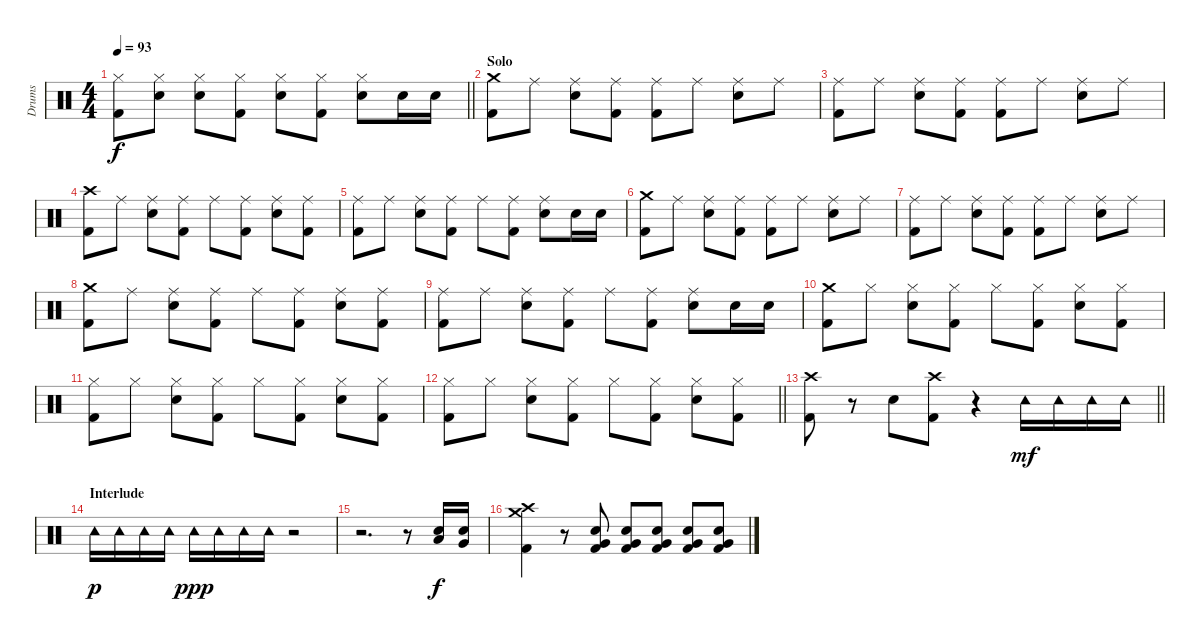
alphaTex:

\track ("Drums" "Drums") {instrument percussion}
\staff {score}
\articulation defaults
\ts (4 4)
\tempo 93
\clef neutral
\barLineRight lightlight
\ks c
("Hi-Hat (closed)" "Kick (hit) 2").8{dy f} ("Hi-Hat (closed)" "Electric Snare (hit)").8 ("Hi-Hat (closed)" "Electric Snare (hit)").8 ("Hi-Hat (closed)" "Kick (hit) 2").8 ("Hi-Hat (closed)" "Electric Snare (hit)").8 ("Hi-Hat (closed)" "Kick (hit) 2").8 ("Hi-Hat (closed)" "Electric Snare (hit)").8 "Electric Snare (hit)".16 "Electric Snare (hit)".16 |
\section ("" "Solo")
("Crash medium (hit)" "Kick (hit) 2").8 "Ride (middle)".8 ("Ride (middle)" "Electric Snare (hit)").8 ("Ride (middle)" "Kick (hit) 2").8 ("Ride (middle)" "Kick (hit) 2").8 "Ride (middle)".8 ("Ride (middle)" "Electric Snare (hit)").8 "Ride (middle)".8 |
("Ride (middle)" "Kick (hit) 2").8 "Ride (middle)".8 ("Ride (middle)" "Electric Snare (hit)").8 ("Ride (middle)" "Kick (hit) 2").8 ("Ride (middle)" "Kick (hit) 2").8 "Ride (middle)".8 ("Ride (middle)" "Electric Snare (hit)").8 "Ride (middle)".8 |
("Crash high (hit)" "Kick (hit) 2").8 "Ride (middle)".8 ("Ride (middle)" "Electric Snare (hit)").8 ("Ride (middle)" "Kick (hit) 2").8 "Ride (middle)".8 ("Ride (middle)" "Kick (hit) 2").8 ("Ride (middle)" "Electric Snare (hit)").8 ("Ride (middle)" "Kick (hit) 2").8 |
("Ride (middle)" "Kick (hit) 2").8 "Ride (middle)".8 ("Ride (middle)" "Electric Snare (hit)").8 ("Ride (middle)" "Kick (hit) 2").8 "Ride (middle)".8 ("Ride (middle)" "Kick (hit) 2").8 ("Ride (middle)" "Electric Snare (hit)").8 "Electric Snare (hit)".16 "Electric Snare (hit)".16 |
("Crash medium (hit)" "Kick (hit) 2").8 "Ride (middle)".8 ("Ride (middle)" "Electric Snare (hit)").8 ("Ride (middle)" "Kick (hit) 2").8 ("Ride (middle)" "Kick (hit) 2").8 "Ride (middle)".8 ("Ride (middle)" "Electric Snare (hit)").8 "Ride (middle)".8 |
("Ride (middle)" "Kick (hit) 2").8 "Ride (middle)".8 ("Ride (middle)" "Electric Snare (hit)").8 ("Ride (middle)" "Kick (hit) 2").8 ("Ride (middle)" "Kick (hit) 2").8 "Ride (middle)".8 ("Ride (middle)" "Electric Snare (hit)").8 "Ride (middle)".8 |
("Crash medium (hit)" "Kick (hit) 2").8 "Ride (middle)".8 ("Ride (middle)" "Electric Snare (hit)").8 ("Ride (middle)" "Kick (hit) 2").8 "Ride (middle)".8 ("Ride (middle)" "Kick (hit) 2").8 ("Ride (middle)" "Electric Snare (hit)").8 ("Ride (middle)" "Kick (hit) 2").8 |
("Ride (middle)" "Kick (hit) 2").8 "Ride (middle)".8 ("Ride (middle)" "Electric Snare (hit)").8 ("Ride (middle)" "Kick (hit) 2").8 "Ride (middle)".8 ("Ride (middle)" "Kick (hit) 2").8 ("Ride (middle)" "Electric Snare (hit)").8 "Electric Snare (hit)".16 "Electric Snare (hit)".16 |
("Crash medium (hit)" "Kick (hit) 2").8 "Hi-Hat (closed)".8 ("Hi-Hat (closed)" "Electric Snare (hit)").8 ("Hi-Hat (closed)" "Kick (hit) 2").8 "Hi-Hat (closed)".8 ("Hi-Hat (closed)" "Kick (hit) 2").8 ("Hi-Hat (closed)" "Electric Snare (hit)").8 ("Hi-Hat (closed)" "Kick (hit) 2").8 |
("Hi-Hat (closed)" "Kick (hit) 2").8 "Hi-Hat (closed)".8 ("Hi-Hat (closed)" "Electric Snare (hit)").8 ("Hi-Hat (closed)" "Kick (hit) 2").8 "Hi-Hat (closed)".8 ("Hi-Hat (closed)" "Kick (hit) 2").8 ("Hi-Hat (closed)" "Electric Snare (hit)").8 ("Hi-Hat (closed)" "Kick (hit) 2").8 |
\barLineRight lightlight
("Hi-Hat (closed)" "Kick (hit) 2").8 "Hi-Hat (closed)".8 ("Hi-Hat (closed)" "Electric Snare (hit)").8 ("Hi-Hat (closed)" "Kick (hit) 2").8 "Hi-Hat (closed)".8 ("Hi-Hat (closed)" "Kick (hit) 2").8 ("Hi-Hat (closed)" "Electric Snare (hit)").8 ("Hi-Hat (closed)" "Kick (hit) 2").8 |
\barLineRight lightlight
("Crash high (hit)" "Kick (hit) 2").8 r.8 "Electric Snare (hit)".8 ("Crash high (hit)" "Kick (hit) 2").8 r.4 "Tambourine (hit)".16{dy mf} "Tambourine (hit)".16 "Tambourine (hit)".16 "Tambourine (hit)".16 |
\section ("" "Interlude")
"Tambourine (hit)".16{dy p} "Tambourine (hit)".16 "Tambourine (hit)".16 "Tambourine (hit)".16 "Tambourine (hit)".16{dy ppp} "Tambourine (hit)".16 "Tambourine (hit)".16 "Tambourine (hit)".16 r.2 |
r.2{d} r.8 ("Electric Snare (hit)" "Low Tom (hit)").16{dy f} ("Electric Snare (hit)" "Very Low Tom (hit)").16 |
("Crash high (hit)" "Crash medium (hit)" "Kick (hit) 2").4 r.8 ("Electric Snare (hit)" "Very Low Tom (hit)" "Kick (hit) 2").8 ("Electric Snare (hit)" "Very Low Tom (hit)" "Kick (hit) 2").8 ("Electric Snare (hit)" "Very Low Tom (hit)" "Kick (hit) 2").8 ("Electric Snare (hit)" "Very Low Tom (hit)" "Kick (hit) 2").8 ("Electric Snare (hit)" "Very Low Tom (hit)" "Kick (hit) 2").8
